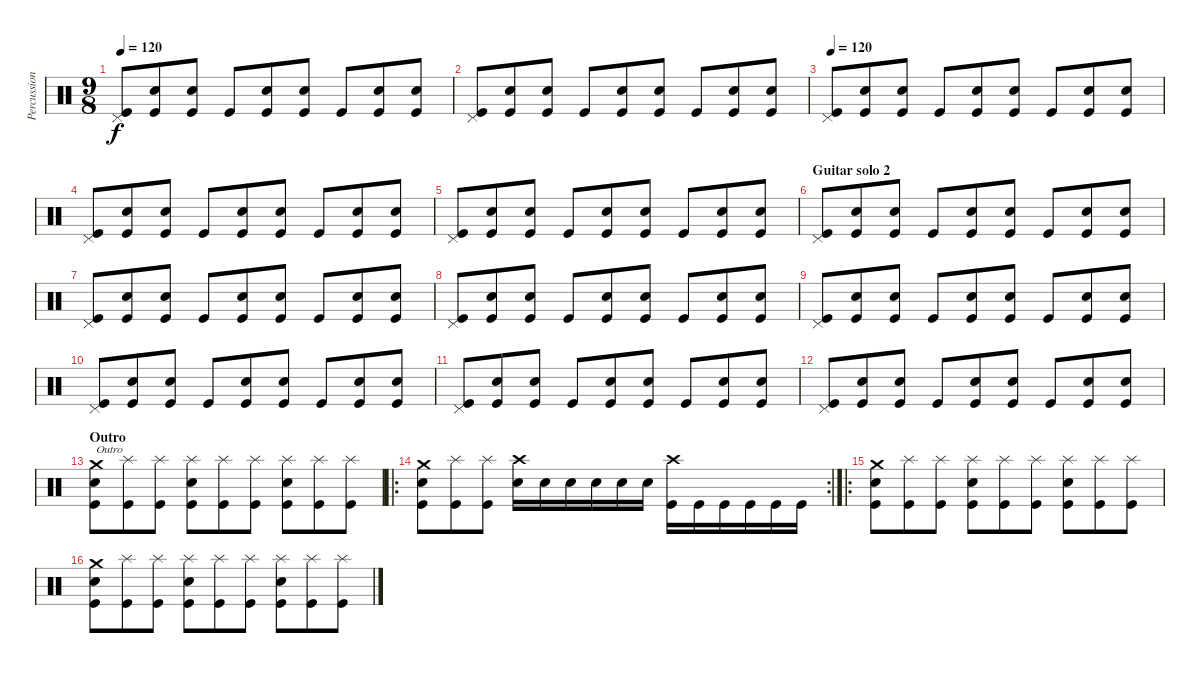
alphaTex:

\track ("Percussion" "Percussion") {instrument percussion}
\staff {score}
\articulation defaults
\ts (9 8)
\tempo 120
\clef neutral
\ks c
("Pedal Hi-Hat (hit)" "Kick (hit)").8{dy f} ("Snare (hit) 2" "Kick (hit)").8 ("Snare (hit) 2" "Kick (hit)").8 "Kick (hit)".8 ("Snare (hit) 2" "Kick (hit)").8 ("Snare (hit) 2" "Kick (hit)").8 "Kick (hit)".8 ("Snare (hit) 2" "Kick (hit)").8 ("Snare (hit) 2" "Kick (hit)").8 |
("Pedal Hi-Hat (hit)" "Kick (hit)").8 ("Snare (hit) 2" "Kick (hit)").8 ("Snare (hit) 2" "Kick (hit)").8 "Kick (hit)".8 ("Snare (hit) 2" "Kick (hit)").8 ("Snare (hit) 2" "Kick (hit)").8 "Kick (hit)".8 ("Snare (hit) 2" "Kick (hit)").8 ("Snare (hit) 2" "Kick (hit)").8 |
\tempo 120
("Pedal Hi-Hat (hit)" "Kick (hit)").8 ("Snare (hit) 2" "Kick (hit)").8 ("Snare (hit) 2" "Kick (hit)").8 "Kick (hit)".8 ("Snare (hit) 2" "Kick (hit)").8 ("Snare (hit) 2" "Kick (hit)").8 "Kick (hit)".8 ("Snare (hit) 2" "Kick (hit)").8 ("Snare (hit) 2" "Kick (hit)").8 |
("Pedal Hi-Hat (hit)" "Kick (hit)").8 ("Snare (hit) 2" "Kick (hit)").8 ("Snare (hit) 2" "Kick (hit)").8 "Kick (hit)".8 ("Snare (hit) 2" "Kick (hit)").8 ("Snare (hit) 2" "Kick (hit)").8 "Kick (hit)".8 ("Snare (hit) 2" "Kick (hit)").8 ("Snare (hit) 2" "Kick (hit)").8 |
("Pedal Hi-Hat (hit)" "Kick (hit)").8 ("Snare (hit) 2" "Kick (hit)").8 ("Snare (hit) 2" "Kick (hit)").8 "Kick (hit)".8 ("Snare (hit) 2" "Kick (hit)").8 ("Snare (hit) 2" "Kick (hit)").8 "Kick (hit)".8 ("Snare (hit) 2" "Kick (hit)").8 ("Snare (hit) 2" "Kick (hit)").8 |
\section ("" "Guitar solo 2")
("Pedal Hi-Hat (hit)" "Kick (hit)").8 ("Snare (hit) 2" "Kick (hit)").8 ("Snare (hit) 2" "Kick (hit)").8 "Kick (hit)".8 ("Snare (hit) 2" "Kick (hit)").8 ("Snare (hit) 2" "Kick (hit)").8 "Kick (hit)".8 ("Snare (hit) 2" "Kick (hit)").8 ("Snare (hit) 2" "Kick (hit)").8 |
("Pedal Hi-Hat (hit)" "Kick (hit)").8 ("Snare (hit) 2" "Kick (hit)").8 ("Snare (hit) 2" "Kick (hit)").8 "Kick (hit)".8 ("Snare (hit) 2" "Kick (hit)").8 ("Snare (hit) 2" "Kick (hit)").8 "Kick (hit)".8 ("Snare (hit) 2" "Kick (hit)").8 ("Snare (hit) 2" "Kick (hit)").8 |
("Pedal Hi-Hat (hit)" "Kick (hit)").8 ("Snare (hit) 2" "Kick (hit)").8 ("Snare (hit) 2" "Kick (hit)").8 "Kick (hit)".8 ("Snare (hit) 2" "Kick (hit)").8 ("Snare (hit) 2" "Kick (hit)").8 "Kick (hit)".8 ("Snare (hit) 2" "Kick (hit)").8 ("Snare (hit) 2" "Kick (hit)").8 |
("Pedal Hi-Hat (hit)" "Kick (hit)").8 ("Snare (hit) 2" "Kick (hit)").8 ("Snare (hit) 2" "Kick (hit)").8 "Kick (hit)".8 ("Snare (hit) 2" "Kick (hit)").8 ("Snare (hit) 2" "Kick (hit)").8 "Kick (hit)".8 ("Snare (hit) 2" "Kick (hit)").8 ("Snare (hit) 2" "Kick (hit)").8 |
("Pedal Hi-Hat (hit)" "Kick (hit)").8 ("Snare (hit) 2" "Kick (hit)").8 ("Snare (hit) 2" "Kick (hit)").8 "Kick (hit)".8 ("Snare (hit) 2" "Kick (hit)").8 ("Snare (hit) 2" "Kick (hit)").8 "Kick (hit)".8 ("Snare (hit) 2" "Kick (hit)").8 ("Snare (hit) 2" "Kick (hit)").8 |
("Pedal Hi-Hat (hit)" "Kick (hit)").8 ("Snare (hit) 2" "Kick (hit)").8 ("Snare (hit) 2" "Kick (hit)").8 "Kick (hit)".8 ("Snare (hit) 2" "Kick (hit)").8 ("Snare (hit) 2" "Kick (hit)").8 "Kick (hit)".8 ("Snare (hit) 2" "Kick (hit)").8 ("Snare (hit) 2" "Kick (hit)").8 |
("Pedal Hi-Hat (hit)" "Kick (hit)").8 ("Snare (hit) 2" "Kick (hit)").8 ("Snare (hit) 2" "Kick (hit)").8 "Kick (hit)".8 ("Snare (hit) 2" "Kick (hit)").8 ("Snare (hit) 2" "Kick (hit)").8 "Kick (hit)".8 ("Snare (hit) 2" "Kick (hit)").8 ("Snare (hit) 2" "Kick (hit)").8 |
\section ("" "Outro")
("Crash medium (hit)" "Snare (hit) 2" "Kick (hit)").8{txt "Outro"} ("Splash (hit)" "Kick (hit)").8 ("Splash (hit)" "Kick (hit)").8 ("Splash (hit)" "Snare (hit) 2" "Kick (hit)").8 ("Splash (hit)" "Kick (hit)").8 ("Splash (hit)" "Kick (hit)").8 ("Splash (hit)" "Snare (hit) 2" "Kick (hit)").8 ("Splash (hit)" "Kick (hit)").8 ("Splash (hit)" "Kick (hit)").8 |
\ro
\rc 2
("Crash medium (hit)" "Snare (hit) 2" "Kick (hit)").8 ("Splash (hit)" "Kick (hit)").8 ("Splash (hit)" "Kick (hit)").8 ("Crash high (hit)" "Snare (hit) 2").16 "Snare (hit) 2".16 "Snare (hit) 2".16 "Snare (hit) 2".16 "Snare (hit) 2".16 "Snare (hit) 2".16 ("Crash high (hit)" "Kick (hit)").16 "Kick (hit)".16 "Kick (hit)".16 "Kick (hit)".16 "Kick (hit)".16 "Kick (hit)".16 |
\ro
("Crash medium (hit)" "Snare (hit) 2" "Kick (hit)").8 ("Splash (hit)" "Kick (hit)").8 ("Splash (hit)" "Kick (hit)").8 ("Splash (hit)" "Snare (hit) 2" "Kick (hit)").8 ("Splash (hit)" "Kick (hit)").8 ("Splash (hit)" "Kick (hit)").8 ("Splash (hit)" "Snare (hit) 2" "Kick (hit)").8 ("Splash (hit)" "Kick (hit)").8 ("Splash (hit)" "Kick (hit)").8 |
("Crash medium (hit)" "Snare (hit) 2" "Kick (hit)").8 ("Splash (hit)" "Kick (hit)").8 ("Splash (hit)" "Kick (hit)").8 ("Splash (hit)" "Snare (hit) 2" "Kick (hit)").8 ("Splash (hit)" "Kick (hit)").8 ("Splash (hit)" "Kick (hit)").8 ("Splash (hit)" "Snare (hit) 2" "Kick (hit)").8 ("Splash (hit)" "Kick (hit)").8 ("Splash (hit)" "Kick (hit)").8
